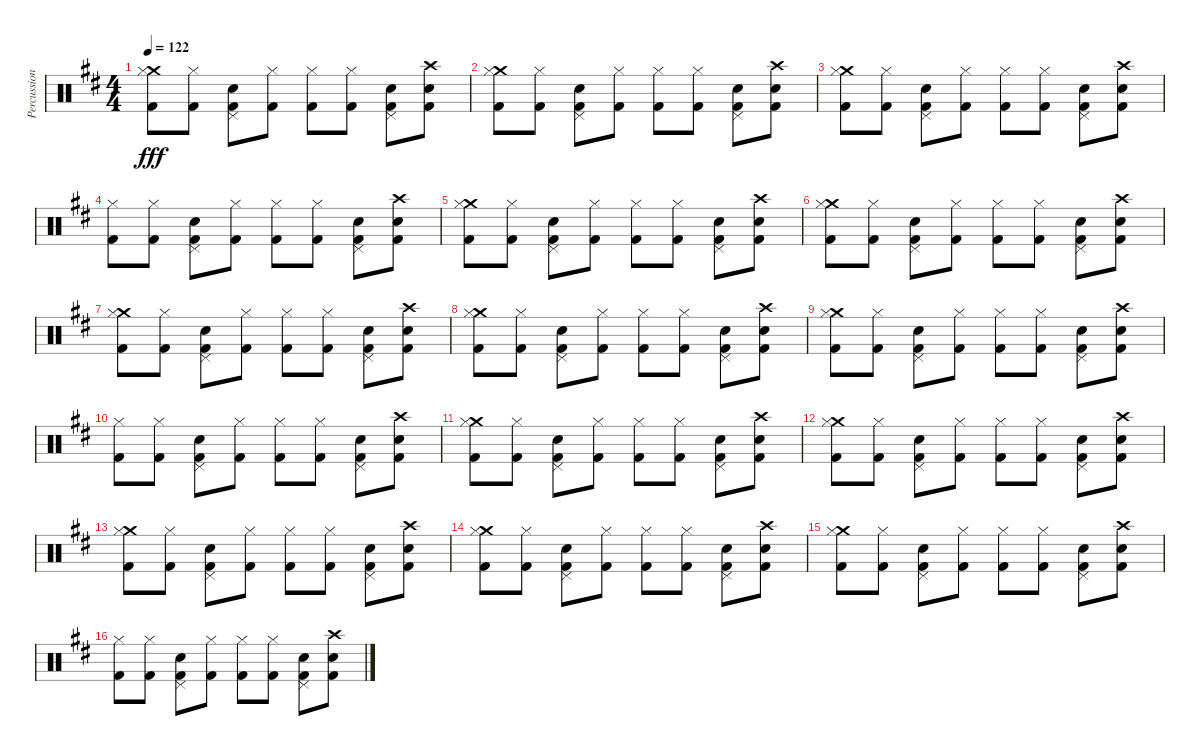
\track ("Percussion: Boz Burrell" "Percussion") {instrument percussion}
\staff {score}
\articulation defaults
\ts (4 4)
\tempo 122
\clef neutral
\ks d
("Crash medium (hit)" "Hi-Hat (closed)" "Kick (hit) 2").8{dy fff} ("Hi-Hat (closed)" "Kick (hit) 2").8 ("Pedal Hi-Hat (hit)" "Snare (hit) 2" "Kick (hit) 2").8 ("Hi-Hat (closed)" "Kick (hit) 2").8 ("Hi-Hat (closed)" "Kick (hit) 2").8 ("Hi-Hat (closed)" "Kick (hit) 2").8 ("Pedal Hi-Hat (hit)" "Snare (hit) 2" "Kick (hit) 2").8 ("Crash high (hit)" "Snare (hit) 2" "Kick (hit) 2").8 |
("Crash medium (hit)" "Hi-Hat (closed)" "Kick (hit) 2").8 ("Hi-Hat (closed)" "Kick (hit) 2").8 ("Pedal Hi-Hat (hit)" "Snare (hit) 2" "Kick (hit) 2").8 ("Hi-Hat (closed)" "Kick (hit) 2").8 ("Hi-Hat (closed)" "Kick (hit) 2").8 ("Hi-Hat (closed)" "Kick (hit) 2").8 ("Pedal Hi-Hat (hit)" "Snare (hit) 2" "Kick (hit) 2").8 ("Crash high (hit)" "Snare (hit) 2" "Kick (hit) 2").8 |
("Crash medium (hit)" "Hi-Hat (closed)" "Kick (hit) 2").8 ("Hi-Hat (closed)" "Kick (hit) 2").8 ("Pedal Hi-Hat (hit)" "Snare (hit) 2" "Kick (hit) 2").8 ("Hi-Hat (closed)" "Kick (hit) 2").8 ("Hi-Hat (closed)" "Kick (hit) 2").8 ("Hi-Hat (closed)" "Kick (hit) 2").8 ("Pedal Hi-Hat (hit)" "Snare (hit) 2" "Kick (hit) 2").8 ("Crash high (hit)" "Snare (hit) 2" "Kick (hit) 2").8 |
("Hi-Hat (closed)" "Kick (hit) 2").8 ("Hi-Hat (closed)" "Kick (hit) 2").8 ("Pedal Hi-Hat (hit)" "Snare (hit) 2" "Kick (hit) 2").8 ("Hi-Hat (closed)" "Kick (hit) 2").8 ("Hi-Hat (closed)" "Kick (hit) 2").8 ("Hi-Hat (closed)" "Kick (hit) 2").8 ("Pedal Hi-Hat (hit)" "Snare (hit) 2" "Kick (hit) 2").8 ("Crash high (hit)" "Snare (hit) 2" "Kick (hit) 2").8 |
("Crash medium (hit)" "Hi-Hat (closed)" "Kick (hit) 2").8 ("Hi-Hat (closed)" "Kick (hit) 2").8 ("Pedal Hi-Hat (hit)" "Snare (hit) 2" "Kick (hit) 2").8 ("Hi-Hat (closed)" "Kick (hit) 2").8 ("Hi-Hat (closed)" "Kick (hit) 2").8 ("Hi-Hat (closed)" "Kick (hit) 2").8 ("Pedal Hi-Hat (hit)" "Snare (hit) 2" "Kick (hit) 2").8 ("Crash high (hit)" "Snare (hit) 2" "Kick (hit) 2").8 |
("Crash medium (hit)" "Hi-Hat (closed)" "Kick (hit) 2").8 ("Hi-Hat (closed)" "Kick (hit) 2").8 ("Pedal Hi-Hat (hit)" "Snare (hit) 2" "Kick (hit) 2").8 ("Hi-Hat (closed)" "Kick (hit) 2").8 ("Hi-Hat (closed)" "Kick (hit) 2").8 ("Hi-Hat (closed)" "Kick (hit) 2").8 ("Pedal Hi-Hat (hit)" "Snare (hit) 2" "Kick (hit) 2").8 ("Crash high (hit)" "Snare (hit) 2" "Kick (hit) 2").8 |
("Crash medium (hit)" "Hi-Hat (closed)" "Kick (hit) 2").8 ("Hi-Hat (closed)" "Kick (hit) 2").8 ("Pedal Hi-Hat (hit)" "Snare (hit) 2" "Kick (hit) 2").8 ("Hi-Hat (closed)" "Kick (hit) 2").8 ("Hi-Hat (closed)" "Kick (hit) 2").8 ("Hi-Hat (closed)" "Kick (hit) 2").8 ("Pedal Hi-Hat (hit)" "Snare (hit) 2" "Kick (hit) 2").8 ("Crash high (hit)" "Snare (hit) 2" "Kick (hit) 2").8 |
("Crash medium (hit)" "Hi-Hat (closed)" "Kick (hit) 2").8 ("Hi-Hat (closed)" "Kick (hit) 2").8 ("Pedal Hi-Hat (hit)" "Snare (hit) 2" "Kick (hit) 2").8 ("Hi-Hat (closed)" "Kick (hit) 2").8 ("Hi-Hat (closed)" "Kick (hit) 2").8 ("Hi-Hat (closed)" "Kick (hit) 2").8 ("Pedal Hi-Hat (hit)" "Snare (hit) 2" "Kick (hit) 2").8 ("Crash high (hit)" "Snare (hit) 2" "Kick (hit) 2").8 |
("Crash medium (hit)" "Hi-Hat (closed)" "Kick (hit) 2").8 ("Hi-Hat (closed)" "Kick (hit) 2").8 ("Pedal Hi-Hat (hit)" "Snare (hit) 2" "Kick (hit) 2").8 ("Hi-Hat (closed)" "Kick (hit) 2").8 ("Hi-Hat (closed)" "Kick (hit) 2").8 ("Hi-Hat (closed)" "Kick (hit) 2").8 ("Pedal Hi-Hat (hit)" "Snare (hit) 2" "Kick (hit) 2").8 ("Crash high (hit)" "Snare (hit) 2" "Kick (hit) 2").8 |
("Hi-Hat (closed)" "Kick (hit) 2").8 ("Hi-Hat (closed)" "Kick (hit) 2").8 ("Pedal Hi-Hat (hit)" "Snare (hit) 2" "Kick (hit) 2").8 ("Hi-Hat (closed)" "Kick (hit) 2").8 ("Hi-Hat (closed)" "Kick (hit) 2").8 ("Hi-Hat (closed)" "Kick (hit) 2").8 ("Pedal Hi-Hat (hit)" "Snare (hit) 2" "Kick (hit) 2").8 ("Crash high (hit)" "Snare (hit) 2" "Kick (hit) 2").8 |
("Crash medium (hit)" "Hi-Hat (closed)" "Kick (hit) 2").8 ("Hi-Hat (closed)" "Kick (hit) 2").8 ("Pedal Hi-Hat (hit)" "Snare (hit) 2" "Kick (hit) 2").8 ("Hi-Hat (closed)" "Kick (hit) 2").8 ("Hi-Hat (closed)" "Kick (hit) 2").8 ("Hi-Hat (closed)" "Kick (hit) 2").8 ("Pedal Hi-Hat (hit)" "Snare (hit) 2" "Kick (hit) 2").8 ("Crash high (hit)" "Snare (hit) 2" "Kick (hit) 2").8 |
("Crash medium (hit)" "Hi-Hat (closed)" "Kick (hit) 2").8 ("Hi-Hat (closed)" "Kick (hit) 2").8 ("Pedal Hi-Hat (hit)" "Snare (hit) 2" "Kick (hit) 2").8 ("Hi-Hat (closed)" "Kick (hit) 2").8 ("Hi-Hat (closed)" "Kick (hit) 2").8 ("Hi-Hat (closed)" "Kick (hit) 2").8 ("Pedal Hi-Hat (hit)" "Snare (hit) 2" "Kick (hit) 2").8 ("Crash high (hit)" "Snare (hit) 2" "Kick (hit) 2").8 |
("Crash medium (hit)" "Hi-Hat (closed)" "Kick (hit) 2").8 ("Hi-Hat (closed)" "Kick (hit) 2").8 ("Pedal Hi-Hat (hit)" "Snare (hit) 2" "Kick (hit) 2").8 ("Hi-Hat (closed)" "Kick (hit) 2").8 ("Hi-Hat (closed)" "Kick (hit) 2").8 ("Hi-Hat (closed)" "Kick (hit) 2").8 ("Pedal Hi-Hat (hit)" "Snare (hit) 2" "Kick (hit) 2").8 ("Crash high (hit)" "Snare (hit) 2" "Kick (hit) 2").8 |
("Crash medium (hit)" "Hi-Hat (closed)" "Kick (hit) 2").8 ("Hi-Hat (closed)" "Kick (hit) 2").8 ("Pedal Hi-Hat (hit)" "Snare (hit) 2" "Kick (hit) 2").8 ("Hi-Hat (closed)" "Kick (hit) 2").8 ("Hi-Hat (closed)" "Kick (hit) 2").8 ("Hi-Hat (closed)" "Kick (hit) 2").8 ("Pedal Hi-Hat (hit)" "Snare (hit) 2" "Kick (hit) 2").8 ("Crash high (hit)" "Snare (hit) 2" "Kick (hit) 2").8 |
("Crash medium (hit)" "Hi-Hat (closed)" "Kick (hit) 2").8 ("Hi-Hat (closed)" "Kick (hit) 2").8 ("Pedal Hi-Hat (hit)" "Snare (hit) 2" "Kick (hit) 2").8 ("Hi-Hat (closed)" "Kick (hit) 2").8 ("Hi-Hat (closed)" "Kick (hit) 2").8 ("Hi-Hat (closed)" "Kick (hit) 2").8 ("Pedal Hi-Hat (hit)" "Snare (hit) 2" "Kick (hit) 2").8 ("Crash high (hit)" "Snare (hit) 2" "Kick (hit) 2").8 |
("Hi-Hat (closed)" "Kick (hit) 2").8 ("Hi-Hat (closed)" "Kick (hit) 2").8 ("Pedal Hi-Hat (hit)" "Snare (hit) 2" "Kick (hit) 2").8 ("Hi-Hat (closed)" "Kick (hit) 2").8 ("Hi-Hat (closed)" "Kick (hit) 2").8 ("Hi-Hat (closed)" "Kick (hit) 2").8 ("Pedal Hi-Hat (hit)" "Snare (hit) 2" "Kick (hit) 2").8 ("Crash high (hit)" "Snare (hit) 2" "Kick (hit) 2").8
